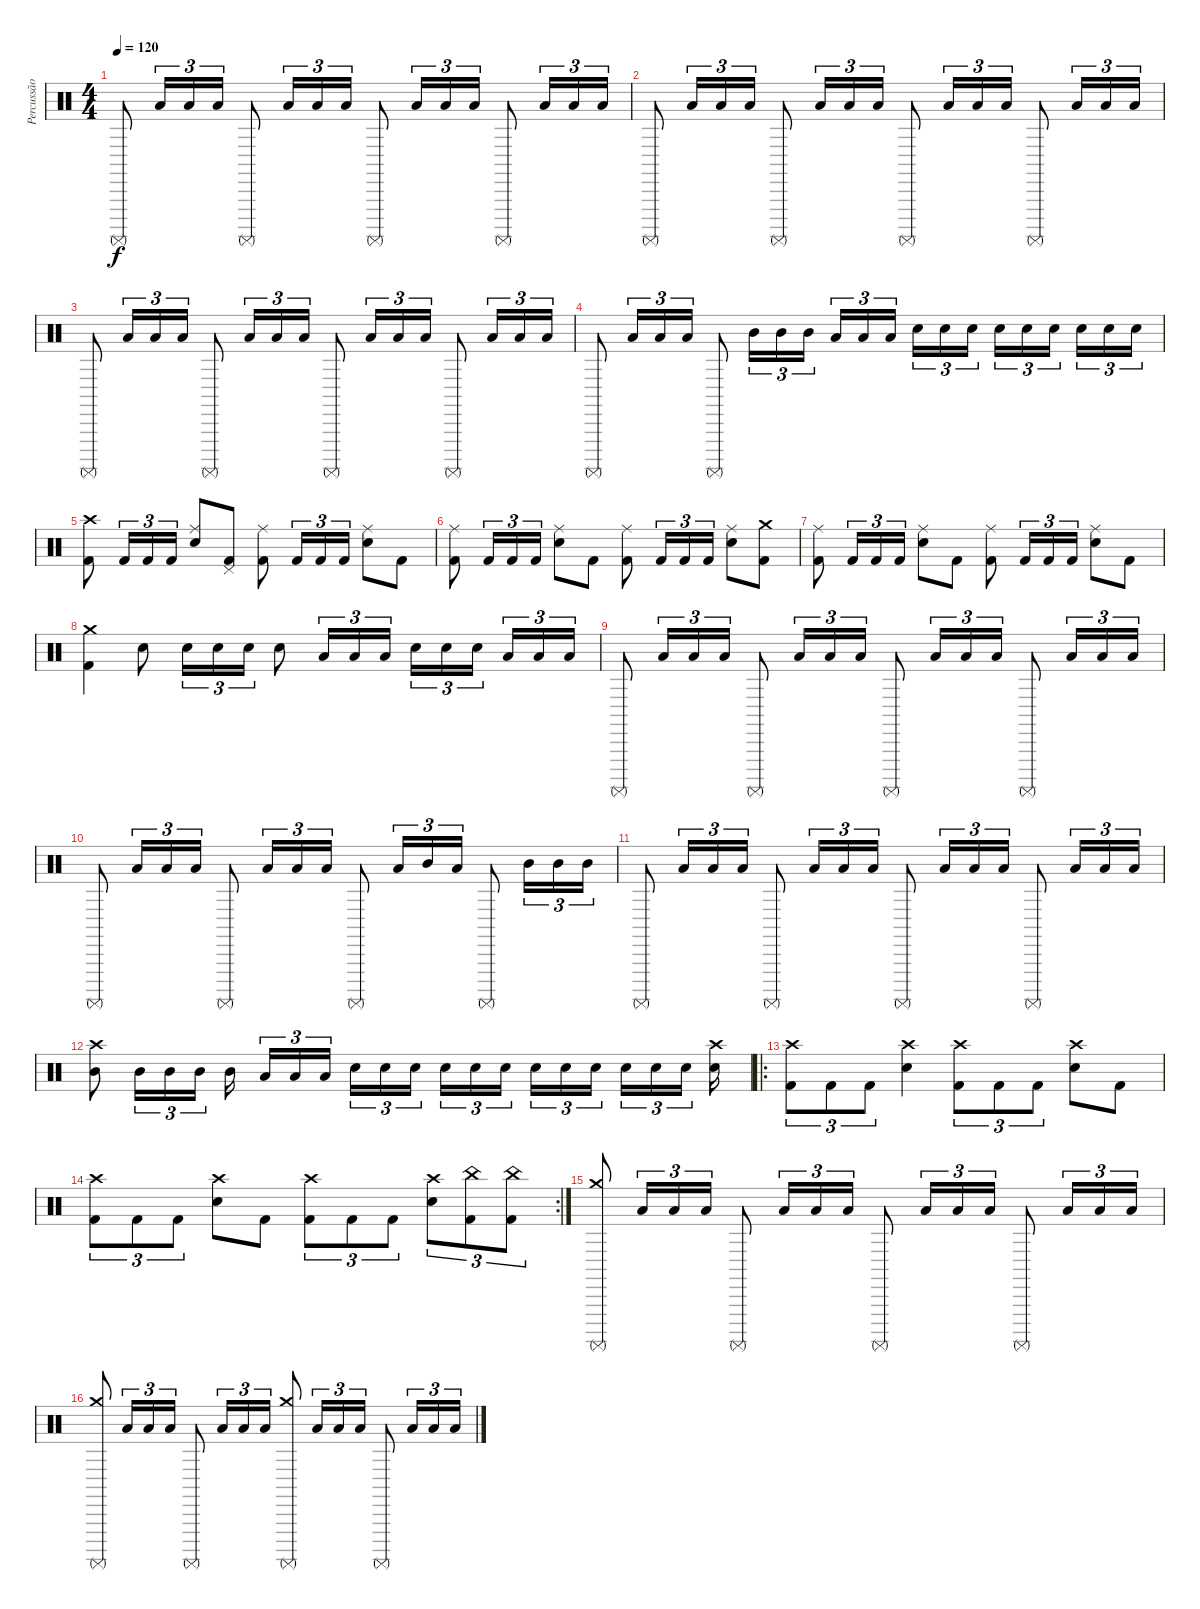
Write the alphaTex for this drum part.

\track ("Percussão" "Percussão") {instrument percussion}
\staff {score}
\articulation defaults
\ts (4 4)
\tempo 120
\clef neutral
\ks c "Surdo (mute)".8{dy f} "Low Tom (hit)".16{tu (3 2)} "Low Tom (hit)".16{tu (3 2)} "Low Tom (hit)".16{tu (3 2)} "Surdo (mute)".8 "Low Tom (hit)".16{tu (3 2)} "Low Tom (hit)".16{tu (3 2)} "Low Tom (hit)".16{tu (3 2)} "Surdo (mute)".8 "Low Tom (hit)".16{tu (3 2)} "Low Tom (hit)".16{tu (3 2)} "Low Tom (hit)".16{tu (3 2)} "Surdo (mute)".8 "Low Tom (hit)".16{tu (3 2)} "Low Tom (hit)".16{tu (3 2)} "Low Tom (hit)".16{tu (3 2)}
|
"Surdo (mute)".8 "Low Tom (hit)".16{tu (3 2)} "Low Tom (hit)".16{tu (3 2)} "Low Tom (hit)".16{tu (3 2)} "Surdo (mute)".8 "Low Tom (hit)".16{tu (3 2)} "Low Tom (hit)".16{tu (3 2)} "Low Tom (hit)".16{tu (3 2)} "Surdo (mute)".8 "Low Tom (hit)".16{tu (3 2)} "Low Tom (hit)".16{tu (3 2)} "Low Tom (hit)".16{tu (3 2)} "Surdo (mute)".8 "Low Tom (hit)".16{tu (3 2)} "Low Tom (hit)".16{tu (3 2)} "Low Tom (hit)".16{tu (3 2)} |
"Surdo (mute)".8 "Low Tom (hit)".16{tu (3 2)} "Low Tom (hit)".16{tu (3 2)} "Low Tom (hit)".16{tu (3 2)} "Surdo (mute)".8 "Low Tom (hit)".16{tu (3 2)} "Low Tom (hit)".16{tu (3 2)} "Low Tom (hit)".16{tu (3 2)} "Surdo (mute)".8 "Low Tom (hit)".16{tu (3 2)} "Low Tom (hit)".16{tu (3 2)} "Low Tom (hit)".16{tu (3 2)} "Surdo (mute)".8 "Low Tom (hit)".16{tu (3 2)} "Low Tom (hit)".16{tu (3 2)} "Low Tom (hit)".16{tu (3 2)} |
"Surdo (mute)".8 "Low Tom (hit)".16{tu (3 2)} "Low Tom (hit)".16{tu (3 2)} "Low Tom (hit)".16{tu (3 2)} "Surdo (mute)".8 "Mid Tom (hit)".16{tu (3 2)} "Mid Tom (hit)".16{tu (3 2)} "Mid Tom (hit)".16{tu (3 2)} "Low Tom (hit)".16{tu (3 2)} "Low Tom (hit)".16{tu (3 2)} "Low Tom (hit)".16{tu (3 2)} "Snare (hit) 2".16{tu (3 2)} "Snare (hit) 2".16{tu (3 2)} "Snare (hit) 2".16{tu (3 2)} "Snare (hit) 2".16{tu (3 2)} "Snare (hit) 2".16{tu (3 2)} "Snare (hit) 2".16{tu (3 2)} "Snare (hit) 2".16{tu (3 2)} "Snare (hit) 2".16{tu (3 2)} "Snare (hit) 2".16{tu (3 2)} |
("Kick (hit) 2" "Crash high (hit)").8 "Kick (hit) 2".16{tu (3 2)} "Kick (hit) 2".16{tu (3 2)} "Kick (hit) 2".16{tu (3 2)} ("Ride (middle)" "Snare (hit) 2").8 ("Pedal Hi-Hat (hit)" "Kick (hit) 2").8 ("Ride (middle)" "Kick (hit) 2").8 "Kick (hit) 2".16{tu (3 2)} "Kick (hit) 2".16{tu (3 2)} "Kick (hit) 2".16{tu (3 2)} ("Ride (middle)" "Snare (hit) 2").8 "Kick (hit) 2".8 |
("Kick (hit) 2" "Ride (middle)").8 "Kick (hit) 2".16{tu (3 2)} "Kick (hit) 2".16{tu (3 2)} "Kick (hit) 2".16{tu (3 2)} ("Ride (middle)" "Snare (hit) 2").8 "Kick (hit) 2".8 ("Ride (middle)" "Kick (hit) 2").8 "Kick (hit) 2".16{tu (3 2)} "Kick (hit) 2".16{tu (3 2)} "Kick (hit) 2".16{tu (3 2)} ("Snare (hit) 2" "Ride (middle)").8 ("Crash medium (hit)" "Kick (hit) 2").8 |
("Kick (hit) 2" "Ride (middle)").8 "Kick (hit) 2".16{tu (3 2)} "Kick (hit) 2".16{tu (3 2)} "Kick (hit) 2".16{tu (3 2)} ("Ride (middle)" "Snare (hit) 2").8 "Kick (hit) 2".8 ("Ride (middle)" "Kick (hit) 2").8 "Kick (hit) 2".16{tu (3 2)} "Kick (hit) 2".16{tu (3 2)} "Kick (hit) 2".16{tu (3 2)} ("Snare (hit) 2" "Ride (middle)").8 "Kick (hit) 2".8 |
("Crash medium (hit)" "Kick (hit) 2").4 "Snare (hit) 2".8 "Snare (hit) 2".16{tu (3 2)} "Snare (hit) 2".16{tu (3 2)} "Snare (hit) 2".16{tu (3 2)} "Snare (hit) 2".8 "Low Tom (hit)".16{tu (3 2)} "Low Tom (hit)".16{tu (3 2)} "Low Tom (hit)".16{tu (3 2)} "Snare (hit) 2".16{tu (3 2)} "Snare (hit) 2".16{tu (3 2)} "Snare (hit) 2".16{tu (3 2)} "Low Tom (hit)".16{tu (3 2)} "Low Tom (hit)".16{tu (3 2)} "Low Tom (hit)".16{tu (3 2)} |
"Surdo (mute)".8 "Low Tom (hit)".16{tu (3 2)} "Low Tom (hit)".16{tu (3 2)} "Low Tom (hit)".16{tu (3 2)} "Surdo (mute)".8 "Low Tom (hit)".16{tu (3 2)} "Low Tom (hit)".16{tu (3 2)} "Low Tom (hit)".16{tu (3 2)} "Surdo (mute)".8 "Low Tom (hit)".16{tu (3 2)} "Low Tom (hit)".16{tu (3 2)} "Low Tom (hit)".16{tu (3 2)} "Surdo (mute)".8 "Low Tom (hit)".16{tu (3 2)} "Low Tom (hit)".16{tu (3 2)} "Low Tom (hit)".16{tu (3 2)} |
"Surdo (mute)".8 "Low Tom (hit)".16{tu (3 2)} "Low Tom (hit)".16{tu (3 2)} "Low Tom (hit)".16{tu (3 2)} "Surdo (mute)".8 "Low Tom (hit)".16{tu (3 2)} "Low Tom (hit)".16{tu (3 2)} "Low Tom (hit)".16{tu (3 2)} "Surdo (mute)".8 "Low Tom (hit)".16{tu (3 2)} "Mid Tom (hit)".16{tu (3 2)} "Low Tom (hit)".16{tu (3 2)} "Surdo (mute)".8 "Mid Tom (hit)".16{tu (3 2)} "Mid Tom (hit)".16{tu (3 2)} "Mid Tom (hit)".16{tu (3 2)} |
"Surdo (mute)".8 "Low Tom (hit)".16{tu (3 2)} "Low Tom (hit)".16{tu (3 2)} "Low Tom (hit)".16{tu (3 2)} "Surdo (mute)".8 "Low Tom (hit)".16{tu (3 2)} "Low Tom (hit)".16{tu (3 2)} "Low Tom (hit)".16{tu (3 2)} "Surdo (mute)".8 "Low Tom (hit)".16{tu (3 2)} "Low Tom (hit)".16{tu (3 2)} "Low Tom (hit)".16{tu (3 2)} "Surdo (mute)".8 "Low Tom (hit)".16{tu (3 2)} "Low Tom (hit)".16{tu (3 2)} "Low Tom (hit)".16{tu (3 2)} |
("Mid Tom (hit)" "Crash high (hit)").8 "Mid Tom (hit)".16{tu (3 2)} "Mid Tom (hit)".16{tu (3 2)} "Mid Tom (hit)".16{tu (3 2)} "Mid Tom (hit)".16 "Low Tom (hit)".16{tu (3 2)} "Low Tom (hit)".16{tu (3 2)} "Low Tom (hit)".16{tu (3 2)} "Snare (hit) 2".16{tu (3 2)} "Snare (hit) 2".16{tu (3 2)} "Snare (hit) 2".16{tu (3 2)} "Snare (hit) 2".16{tu (3 2)} "Snare (hit) 2".16{tu (3 2)} "Snare (hit) 2".16{tu (3 2)} "Snare (hit) 2".16{tu (3 2)} "Snare (hit) 2".16{tu (3 2)} "Snare (hit) 2".16{tu (3 2)} "Snare (hit) 2".16{tu (3 2)} "Snare (hit) 2".16{tu (3 2)} "Snare (hit) 2".16{tu (3 2)} ("Crash high (hit)" "Snare (hit) 2").16 |
\ro
("Kick (hit) 2" "Crash high (hit)").8{tu (3 2)} "Kick (hit) 2".8{tu (3 2)} "Kick (hit) 2".8{tu (3 2)} ("Snare (hit) 2" "Crash high (hit)").4 ("Kick (hit) 2" "Crash high (hit)").8{tu (3 2)} "Kick (hit) 2".8{tu (3 2)} "Kick (hit) 2".8{tu (3 2)} ("Crash high (hit)" "Snare (hit) 2").8 "Kick (hit) 2".8 |
\rc 2
("Kick (hit) 2" "Crash high (hit)").8{tu (3 2)} "Kick (hit) 2".8{tu (3 2)} "Kick (hit) 2".8{tu (3 2)} ("Snare (hit) 2" "Crash high (hit)").8 "Kick (hit) 2".8 ("Kick (hit) 2" "Crash high (hit)").8{tu (3 2)} "Kick (hit) 2".8{tu (3 2)} "Kick (hit) 2".8{tu (3 2)} ("Crash high (hit)" "Snare (hit) 2").8{tu (3 2)} ("China (hit)" "Kick (hit) 2").8{tu (3 2)} ("China (hit)" "Kick (hit) 2").8{tu (3 2)} |
("Crash medium (hit)" "Surdo (mute)").8 "Low Tom (hit)".16{tu (3 2)} "Low Tom (hit)".16{tu (3 2)} "Low Tom (hit)".16{tu (3 2)} "Surdo (mute)".8 "Low Tom (hit)".16{tu (3 2)} "Low Tom (hit)".16{tu (3 2)} "Low Tom (hit)".16{tu (3 2)} "Surdo (mute)".8 "Low Tom (hit)".16{tu (3 2)} "Low Tom (hit)".16{tu (3 2)} "Low Tom (hit)".16{tu (3 2)} "Surdo (mute)".8 "Low Tom (hit)".16{tu (3 2)} "Low Tom (hit)".16{tu (3 2)} "Low Tom (hit)".16{tu (3 2)} |
("Crash medium (hit)" "Surdo (mute)").8 "Low Tom (hit)".16{tu (3 2)} "Low Tom (hit)".16{tu (3 2)} "Low Tom (hit)".16{tu (3 2)} "Surdo (mute)".8 "Low Tom (hit)".16{tu (3 2)} "Low Tom (hit)".16{tu (3 2)} "Low Tom (hit)".16{tu (3 2)} ("Crash medium (hit)" "Surdo (mute)").8 "Low Tom (hit)".16{tu (3 2)} "Low Tom (hit)".16{tu (3 2)} "Low Tom (hit)".16{tu (3 2)} "Surdo (mute)".8 "Low Tom (hit)".16{tu (3 2)} "Low Tom (hit)".16{tu (3 2)} "Low Tom (hit)".16{tu (3 2)}
